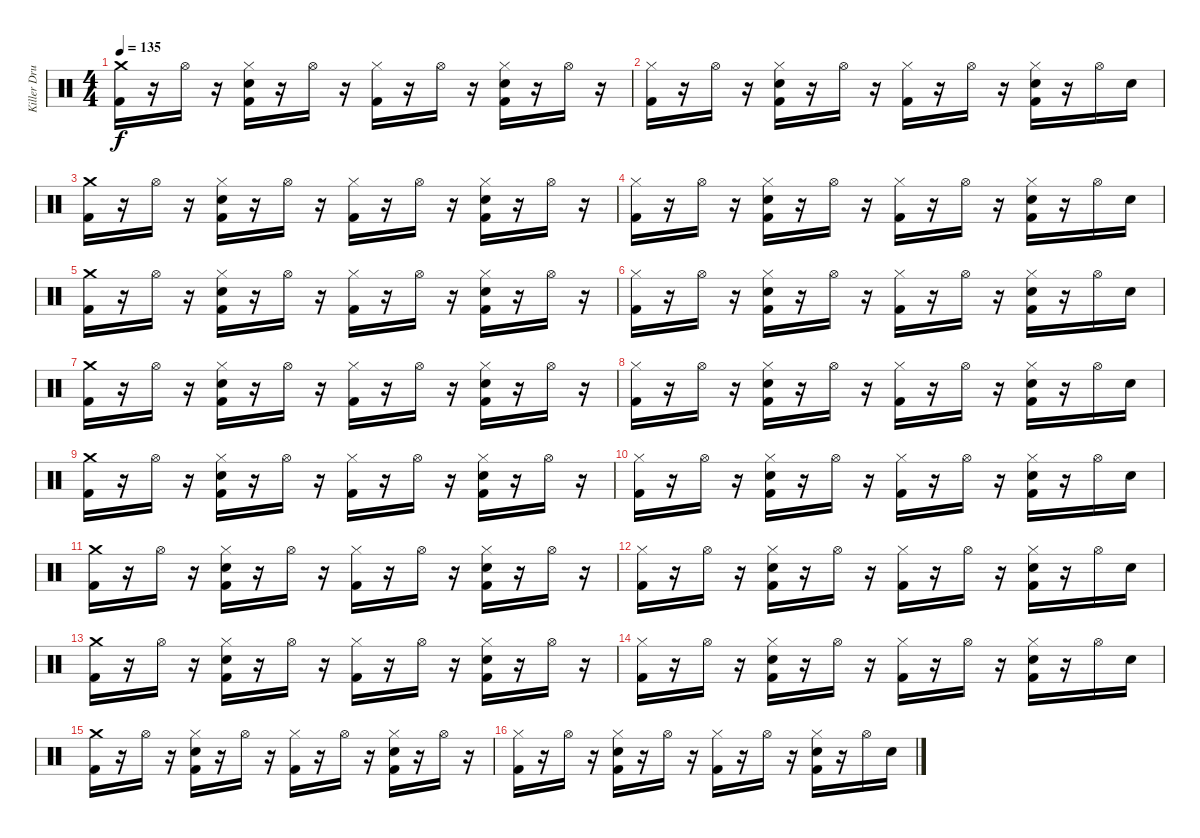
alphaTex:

\track ("Killer Drummer" "Killer Dru") {instrument percussion}
\staff {score}
\articulation defaults
\ts (4 4)
\tempo 135
\clef neutral
\ks c
("Crash medium (hit)" "Kick (hit) 2").16{dy f} r.16 "Hi-Hat (open)".16 r.16 ("Hi-Hat (closed)" "Electric Snare (hit)" "Kick (hit) 2").16 r.16 "Hi-Hat (open)".16 r.16 ("Hi-Hat (closed)" "Kick (hit) 2").16 r.16 "Hi-Hat (open)".16 r.16 ("Hi-Hat (closed)" "Electric Snare (hit)" "Kick (hit) 2").16 r.16 "Hi-Hat (open)".16 r.16 |
("Hi-Hat (closed)" "Kick (hit) 2").16 r.16 "Hi-Hat (open)".16 r.16 ("Hi-Hat (closed)" "Electric Snare (hit)" "Kick (hit) 2").16 r.16 "Hi-Hat (open)".16 r.16 ("Hi-Hat (closed)" "Kick (hit) 2").16 r.16 "Hi-Hat (open)".16 r.16 ("Hi-Hat (closed)" "Electric Snare (hit)" "Kick (hit) 2").16 r.16 "Hi-Hat (open)".16 "Electric Snare (hit)".16 |
("Crash medium (hit)" "Kick (hit) 2").16 r.16 "Hi-Hat (open)".16 r.16 ("Hi-Hat (closed)" "Electric Snare (hit)" "Kick (hit) 2").16 r.16 "Hi-Hat (open)".16 r.16 ("Hi-Hat (closed)" "Kick (hit) 2").16 r.16 "Hi-Hat (open)".16 r.16 ("Hi-Hat (closed)" "Electric Snare (hit)" "Kick (hit) 2").16 r.16 "Hi-Hat (open)".16 r.16 |
("Hi-Hat (closed)" "Kick (hit) 2").16 r.16 "Hi-Hat (open)".16 r.16 ("Hi-Hat (closed)" "Electric Snare (hit)" "Kick (hit) 2").16 r.16 "Hi-Hat (open)".16 r.16 ("Hi-Hat (closed)" "Kick (hit) 2").16 r.16 "Hi-Hat (open)".16 r.16 ("Hi-Hat (closed)" "Electric Snare (hit)" "Kick (hit) 2").16 r.16 "Hi-Hat (open)".16 "Electric Snare (hit)".16 |
("Crash medium (hit)" "Kick (hit) 2").16 r.16 "Hi-Hat (open)".16 r.16 ("Hi-Hat (closed)" "Electric Snare (hit)" "Kick (hit) 2").16 r.16 "Hi-Hat (open)".16 r.16 ("Hi-Hat (closed)" "Kick (hit) 2").16 r.16 "Hi-Hat (open)".16 r.16 ("Hi-Hat (closed)" "Electric Snare (hit)" "Kick (hit) 2").16 r.16 "Hi-Hat (open)".16 r.16 |
("Hi-Hat (closed)" "Kick (hit) 2").16 r.16 "Hi-Hat (open)".16 r.16 ("Hi-Hat (closed)" "Electric Snare (hit)" "Kick (hit) 2").16 r.16 "Hi-Hat (open)".16 r.16 ("Hi-Hat (closed)" "Kick (hit) 2").16 r.16 "Hi-Hat (open)".16 r.16 ("Hi-Hat (closed)" "Electric Snare (hit)" "Kick (hit) 2").16 r.16 "Hi-Hat (open)".16 "Electric Snare (hit)".16 |
("Crash medium (hit)" "Kick (hit) 2").16 r.16 "Hi-Hat (open)".16 r.16 ("Hi-Hat (closed)" "Electric Snare (hit)" "Kick (hit) 2").16 r.16 "Hi-Hat (open)".16 r.16 ("Hi-Hat (closed)" "Kick (hit) 2").16 r.16 "Hi-Hat (open)".16 r.16 ("Hi-Hat (closed)" "Electric Snare (hit)" "Kick (hit) 2").16 r.16 "Hi-Hat (open)".16 r.16 |
("Hi-Hat (closed)" "Kick (hit) 2").16 r.16 "Hi-Hat (open)".16 r.16 ("Hi-Hat (closed)" "Electric Snare (hit)" "Kick (hit) 2").16 r.16 "Hi-Hat (open)".16 r.16 ("Hi-Hat (closed)" "Kick (hit) 2").16 r.16 "Hi-Hat (open)".16 r.16 ("Hi-Hat (closed)" "Electric Snare (hit)" "Kick (hit) 2").16 r.16 "Hi-Hat (open)".16 "Electric Snare (hit)".16 |
("Crash medium (hit)" "Kick (hit) 2").16 r.16 "Hi-Hat (open)".16 r.16 ("Hi-Hat (closed)" "Electric Snare (hit)" "Kick (hit) 2").16 r.16 "Hi-Hat (open)".16 r.16 ("Hi-Hat (closed)" "Kick (hit) 2").16 r.16 "Hi-Hat (open)".16 r.16 ("Hi-Hat (closed)" "Electric Snare (hit)" "Kick (hit) 2").16 r.16 "Hi-Hat (open)".16 r.16 |
("Hi-Hat (closed)" "Kick (hit) 2").16 r.16 "Hi-Hat (open)".16 r.16 ("Hi-Hat (closed)" "Electric Snare (hit)" "Kick (hit) 2").16 r.16 "Hi-Hat (open)".16 r.16 ("Hi-Hat (closed)" "Kick (hit) 2").16 r.16 "Hi-Hat (open)".16 r.16 ("Hi-Hat (closed)" "Electric Snare (hit)" "Kick (hit) 2").16 r.16 "Hi-Hat (open)".16 "Electric Snare (hit)".16 |
("Crash medium (hit)" "Kick (hit) 2").16 r.16 "Hi-Hat (open)".16 r.16 ("Hi-Hat (closed)" "Electric Snare (hit)" "Kick (hit) 2").16 r.16 "Hi-Hat (open)".16 r.16 ("Hi-Hat (closed)" "Kick (hit) 2").16 r.16 "Hi-Hat (open)".16 r.16 ("Hi-Hat (closed)" "Electric Snare (hit)" "Kick (hit) 2").16 r.16 "Hi-Hat (open)".16 r.16 |
("Hi-Hat (closed)" "Kick (hit) 2").16 r.16 "Hi-Hat (open)".16 r.16 ("Hi-Hat (closed)" "Electric Snare (hit)" "Kick (hit) 2").16 r.16 "Hi-Hat (open)".16 r.16 ("Hi-Hat (closed)" "Kick (hit) 2").16 r.16 "Hi-Hat (open)".16 r.16 ("Hi-Hat (closed)" "Electric Snare (hit)" "Kick (hit) 2").16 r.16 "Hi-Hat (open)".16 "Electric Snare (hit)".16 |
("Crash medium (hit)" "Kick (hit) 2").16 r.16 "Hi-Hat (open)".16 r.16 ("Hi-Hat (closed)" "Electric Snare (hit)" "Kick (hit) 2").16 r.16 "Hi-Hat (open)".16 r.16 ("Hi-Hat (closed)" "Kick (hit) 2").16 r.16 "Hi-Hat (open)".16 r.16 ("Hi-Hat (closed)" "Electric Snare (hit)" "Kick (hit) 2").16 r.16 "Hi-Hat (open)".16 r.16 |
("Hi-Hat (closed)" "Kick (hit) 2").16 r.16 "Hi-Hat (open)".16 r.16 ("Hi-Hat (closed)" "Electric Snare (hit)" "Kick (hit) 2").16 r.16 "Hi-Hat (open)".16 r.16 ("Hi-Hat (closed)" "Kick (hit) 2").16 r.16 "Hi-Hat (open)".16 r.16 ("Hi-Hat (closed)" "Electric Snare (hit)" "Kick (hit) 2").16 r.16 "Hi-Hat (open)".16 "Electric Snare (hit)".16 |
("Crash medium (hit)" "Kick (hit) 2").16 r.16 "Hi-Hat (open)".16 r.16 ("Hi-Hat (closed)" "Electric Snare (hit)" "Kick (hit) 2").16 r.16 "Hi-Hat (open)".16 r.16 ("Hi-Hat (closed)" "Kick (hit) 2").16 r.16 "Hi-Hat (open)".16 r.16 ("Hi-Hat (closed)" "Electric Snare (hit)" "Kick (hit) 2").16 r.16 "Hi-Hat (open)".16 r.16 |
("Hi-Hat (closed)" "Kick (hit) 2").16 r.16 "Hi-Hat (open)".16 r.16 ("Hi-Hat (closed)" "Electric Snare (hit)" "Kick (hit) 2").16 r.16 "Hi-Hat (open)".16 r.16 ("Hi-Hat (closed)" "Kick (hit) 2").16 r.16 "Hi-Hat (open)".16 r.16 ("Hi-Hat (closed)" "Electric Snare (hit)" "Kick (hit) 2").16 r.16 "Hi-Hat (open)".16 "Electric Snare (hit)".16
